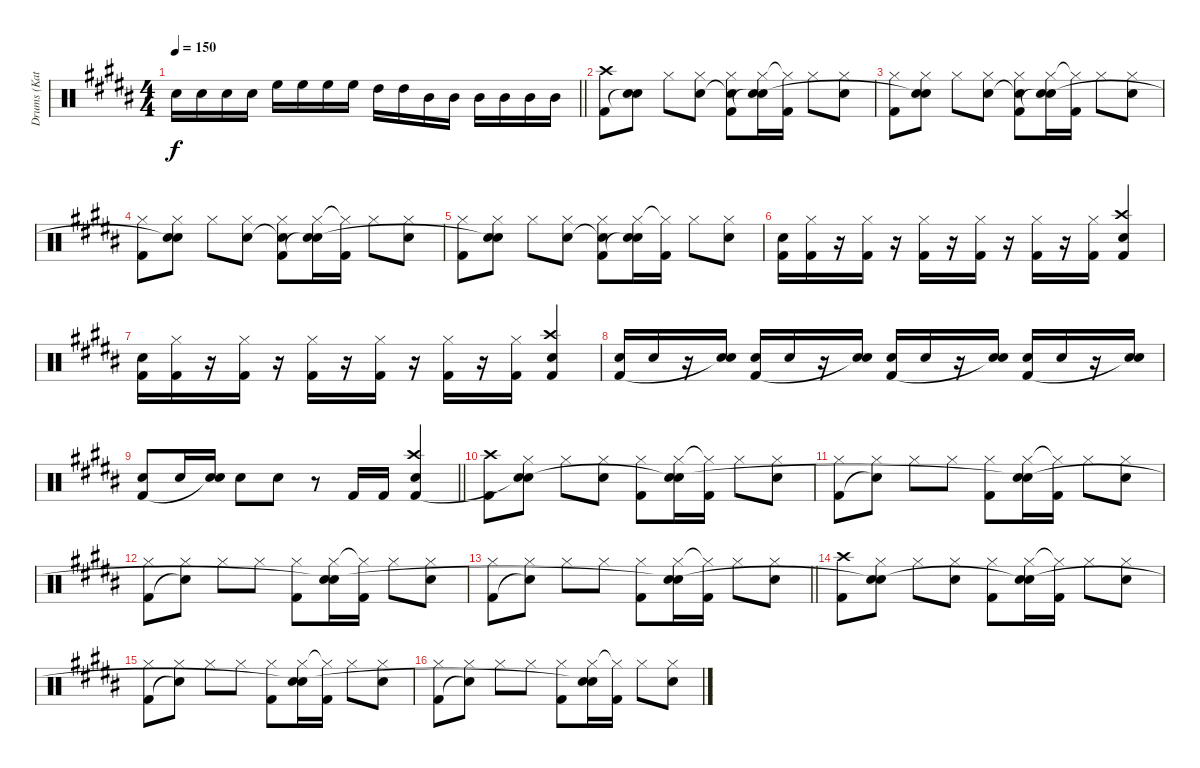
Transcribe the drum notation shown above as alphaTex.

\track ("Drums (Katsuji)" "Drums (Kat") {instrument percussion}
\staff {score}
\articulation defaults
\ts (4 4)
\tempo 150
\clef neutral
\barLineRight lightlight
\ks b "Snare (hit) 2".16{dy f} "Snare (hit) 2".16 "Snare (hit) 2".16 "Snare (hit) 2".16 "High Floor Tom (hit)".16 "High Floor Tom (hit)".16 "High Floor Tom (hit)".16 "High Floor Tom (hit)".16 "High Tom (hit)".16 "High Tom (hit)".16 "Mid Tom (hit)".16 "Mid Tom (hit)".16 "Mid Tom (hit)".16 "Mid Tom (hit)".16 "Mid Tom (hit)".16 "Mid Tom (hit)".16
|
("Crash high (hit)" "Kick (hit) 2").8 ("Snare (hit) 2" "Snare (hit)"{t}).8 "Hi-Hat (closed)".8 ("Hi-Hat (closed)" "Snare (hit) 2").8 ("Hi-Hat (closed)" "Snare (hit)"{t} "Kick (hit) 2").8 ("Hi-Hat (closed)" "Snare (hit) 2" "Snare (hit)"{t}).16 ("Hi-Hat (closed)"{t} "Kick (hit) 2").16 "Hi-Hat (closed)".8 ("Hi-Hat (closed)" "Snare (hit) 2").8 |
("Hi-Hat (closed)" "Kick (hit) 2").8 ("Hi-Hat (closed)" "Snare (hit) 2" "Snare (hit)"{t}).8 "Hi-Hat (closed)".8 ("Hi-Hat (closed)" "Snare (hit) 2").8 ("Hi-Hat (closed)" "Snare (hit)"{t} "Kick (hit) 2").8 ("Hi-Hat (closed)" "Snare (hit) 2" "Snare (hit)"{t}).16 ("Hi-Hat (closed)"{t} "Kick (hit) 2").16 "Hi-Hat (closed)".8 ("Hi-Hat (closed)" "Snare (hit) 2").8 |
("Hi-Hat (closed)" "Kick (hit) 2").8 ("Hi-Hat (closed)" "Snare (hit) 2" "Snare (hit)"{t}).8 "Hi-Hat (closed)".8 ("Hi-Hat (closed)" "Snare (hit) 2").8 ("Hi-Hat (closed)" "Snare (hit)"{t} "Kick (hit) 2").8 ("Hi-Hat (closed)" "Snare (hit) 2" "Snare (hit)"{t}).16 ("Hi-Hat (closed)"{t} "Kick (hit) 2").16 "Hi-Hat (closed)".8 ("Hi-Hat (closed)" "Snare (hit) 2").8 |
("Hi-Hat (closed)" "Kick (hit) 2").8 ("Hi-Hat (closed)" "Snare (hit) 2" "Snare (hit)"{t}).8 "Hi-Hat (closed)".8 ("Hi-Hat (closed)" "Snare (hit) 2").8 ("Hi-Hat (closed)" "Snare (hit)"{t} "Kick (hit) 2").8 ("Hi-Hat (closed)" "Snare (hit) 2" "Snare (hit)"{t}).16 ("Hi-Hat (closed)"{t} "Kick (hit) 2").16 "Hi-Hat (closed)".8 ("Hi-Hat (closed)" "Snare (hit) 2").8 |
("Snare (hit) 2" "Kick (hit) 2").16 ("Hi-Hat (closed)" "Kick (hit) 2").16 r.16 ("Hi-Hat (closed)" "Kick (hit) 2").16 r.16 ("Hi-Hat (closed)" "Kick (hit) 2").16 r.16 ("Hi-Hat (closed)" "Kick (hit) 2").16 r.16 ("Hi-Hat (closed)" "Kick (hit) 2").16 r.16 ("Hi-Hat (closed)" "Kick (hit) 2").16 ("Crash high (hit)" "Snare (hit) 2" "Kick (hit) 2").4 |
("Snare (hit) 2" "Kick (hit) 2").16 ("Hi-Hat (closed)" "Kick (hit) 2").16 r.16 ("Hi-Hat (closed)" "Kick (hit) 2").16 r.16 ("Hi-Hat (closed)" "Kick (hit) 2").16 r.16 ("Hi-Hat (closed)" "Kick (hit) 2").16 r.16 ("Hi-Hat (closed)" "Kick (hit) 2").16 r.16 ("Hi-Hat (closed)" "Kick (hit) 2").16 ("Crash high (hit)" "Snare (hit) 2" "Kick (hit) 2").4 |
("Snare (hit) 2" "Kick (hit) 2").16 "Snare (hit) 2".16 r.16 ("Snare (hit) 2" "Snare (hit)"{t}).16 ("Snare (hit) 2" "Kick (hit) 2").16 "Snare (hit) 2".16 r.16 ("Snare (hit) 2" "Snare (hit)"{t}).16 ("Snare (hit) 2" "Kick (hit) 2").16 "Snare (hit) 2".16 r.16 ("Snare (hit) 2" "Snare (hit)"{t}).16 ("Snare (hit) 2" "Kick (hit) 2").16 "Snare (hit) 2".16 r.16 ("Snare (hit) 2" "Snare (hit)"{t}).16 |
\barLineRight lightlight
("Snare (hit) 2" "Kick (hit) 2").8 "Snare (hit) 2".16 ("Snare (hit) 2" "Snare (hit)"{t}).16 "Snare (hit) 2".8 "Snare (hit) 2".8 r.8 "Kick (hit) 2".16 "Kick (hit) 2".16 ("Crash high (hit)" "Snare (hit) 2" "Kick (hit) 2").4 |
("Crash high (hit)" "Kick (hit) 2").8 ("Hi-Hat (closed)" "Snare (hit) 2" "Snare (hit)"{t}).8 "Hi-Hat (closed)".8 ("Hi-Hat (closed)" "Snare (hit) 2").8 ("Hi-Hat (closed)" "Kick (hit) 2").8 ("Hi-Hat (closed)" "Snare (hit) 2" "Snare (hit)"{t}).16 ("Hi-Hat (closed)"{t} "Kick (hit) 2").16 "Hi-Hat (closed)".8 ("Hi-Hat (closed)" "Snare (hit) 2").8 |
("Hi-Hat (closed)" "Kick (hit) 2").8 ("Hi-Hat (closed)" "Snare (hit)"{t}).8 "Hi-Hat (closed)".8 "Hi-Hat (closed)".8 ("Hi-Hat (closed)" "Kick (hit) 2").8 ("Hi-Hat (closed)" "Snare (hit) 2" "Snare (hit)"{t}).16 ("Hi-Hat (closed)"{t} "Kick (hit) 2").16 "Hi-Hat (closed)".8 ("Hi-Hat (closed)" "Snare (hit) 2").8 |
("Hi-Hat (closed)" "Kick (hit) 2").8 ("Hi-Hat (closed)" "Snare (hit)"{t}).8 "Hi-Hat (closed)".8 "Hi-Hat (closed)".8 ("Hi-Hat (closed)" "Kick (hit) 2").8 ("Hi-Hat (closed)" "Snare (hit) 2" "Snare (hit)"{t}).16 ("Hi-Hat (closed)"{t} "Kick (hit) 2").16 "Hi-Hat (closed)".8 ("Hi-Hat (closed)" "Snare (hit) 2").8 |
\barLineRight lightlight
("Hi-Hat (closed)" "Kick (hit) 2").8 ("Hi-Hat (closed)" "Snare (hit)"{t}).8 "Hi-Hat (closed)".8 "Hi-Hat (closed)".8 ("Hi-Hat (closed)" "Kick (hit) 2").8 ("Hi-Hat (closed)" "Snare (hit) 2" "Snare (hit)"{t}).16 ("Hi-Hat (closed)"{t} "Kick (hit) 2").16 "Hi-Hat (closed)".8 ("Hi-Hat (closed)" "Snare (hit) 2").8 |
("Crash high (hit)" "Kick (hit) 2").8 ("Hi-Hat (closed)" "Snare (hit) 2" "Snare (hit)"{t}).8 "Hi-Hat (closed)".8 ("Hi-Hat (closed)" "Snare (hit) 2").8 ("Hi-Hat (closed)" "Kick (hit) 2").8 ("Hi-Hat (closed)" "Snare (hit) 2" "Snare (hit)"{t}).16 ("Hi-Hat (closed)"{t} "Kick (hit) 2").16 "Hi-Hat (closed)".8 ("Hi-Hat (closed)" "Snare (hit) 2").8 |
("Hi-Hat (closed)" "Kick (hit) 2").8 ("Hi-Hat (closed)" "Snare (hit)"{t}).8 "Hi-Hat (closed)".8 "Hi-Hat (closed)".8 ("Hi-Hat (closed)" "Kick (hit) 2").8 ("Hi-Hat (closed)" "Snare (hit) 2" "Snare (hit)"{t}).16 ("Hi-Hat (closed)"{t} "Kick (hit) 2").16 "Hi-Hat (closed)".8 ("Hi-Hat (closed)" "Snare (hit) 2").8 |
("Hi-Hat (closed)" "Kick (hit) 2").8 ("Hi-Hat (closed)" "Snare (hit)"{t}).8 "Hi-Hat (closed)".8 "Hi-Hat (closed)".8 ("Hi-Hat (closed)" "Kick (hit) 2").8 ("Hi-Hat (closed)" "Snare (hit) 2" "Snare (hit)"{t}).16 ("Hi-Hat (closed)"{t} "Kick (hit) 2").16 "Hi-Hat (closed)".8 ("Hi-Hat (closed)" "Snare (hit) 2").8
